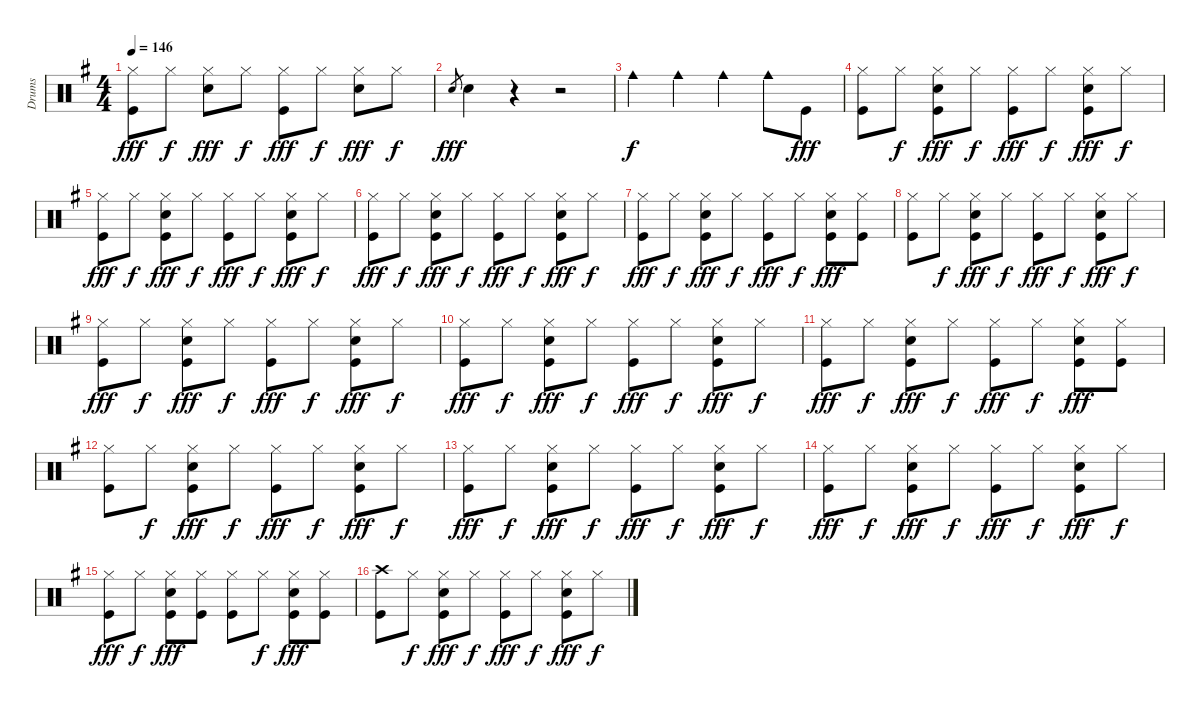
\track ("Drums" "Drums") {instrument percussion}
\staff {score}
\articulation defaults
\ts (4 4)
\tempo 146
\clef neutral
\ks g
("Hi-Hat (closed)" "Kick (hit)").8{dy fff} "Hi-Hat (closed)".8{dy f} ("Hi-Hat (closed)" "Snare (hit) 2").8{dy fff} "Hi-Hat (closed)".8{dy f} ("Hi-Hat (closed)" "Kick (hit)").8{dy fff} "Hi-Hat (closed)".8{dy f} ("Hi-Hat (closed)" "Snare (hit) 2").8{dy fff} "Hi-Hat (closed)".8{dy f} |
"Snare (hit) 2".8{gr dy fff} "Snare (hit) 2".4 r.4 r.2 |
"Cowbell medium (hit)".4{dy f} "Cowbell medium (hit)".4 "Cowbell medium (hit)".4 "Cowbell medium (hit)".8 "Kick (hit)".8{dy fff} |
("Hi-Hat (closed)" "Kick (hit)").8 "Hi-Hat (closed)".8{dy f} ("Hi-Hat (closed)" "Snare (hit) 2" "Kick (hit)").8{dy fff} "Hi-Hat (closed)".8{dy f} ("Hi-Hat (closed)" "Kick (hit)").8{dy fff} "Hi-Hat (closed)".8{dy f} ("Hi-Hat (closed)" "Snare (hit) 2" "Kick (hit)").8{dy fff} "Hi-Hat (closed)".8{dy f} |
("Hi-Hat (closed)" "Kick (hit)").8{dy fff} "Hi-Hat (closed)".8{dy f} ("Hi-Hat (closed)" "Snare (hit) 2" "Kick (hit)").8{dy fff} "Hi-Hat (closed)".8{dy f} ("Hi-Hat (closed)" "Kick (hit)").8{dy fff} "Hi-Hat (closed)".8{dy f} ("Hi-Hat (closed)" "Snare (hit) 2" "Kick (hit)").8{dy fff} "Hi-Hat (closed)".8{dy f} |
("Hi-Hat (closed)" "Kick (hit)").8{dy fff} "Hi-Hat (closed)".8{dy f} ("Hi-Hat (closed)" "Snare (hit) 2" "Kick (hit)").8{dy fff} "Hi-Hat (closed)".8{dy f} ("Hi-Hat (closed)" "Kick (hit)").8{dy fff} "Hi-Hat (closed)".8{dy f} ("Hi-Hat (closed)" "Snare (hit) 2" "Kick (hit)").8{dy fff} "Hi-Hat (closed)".8{dy f} |
("Hi-Hat (closed)" "Kick (hit)").8{dy fff} "Hi-Hat (closed)".8{dy f} ("Hi-Hat (closed)" "Snare (hit) 2" "Kick (hit)").8{dy fff} "Hi-Hat (closed)".8{dy f} ("Hi-Hat (closed)" "Kick (hit)").8{dy fff} "Hi-Hat (closed)".8{dy f} ("Hi-Hat (closed)" "Snare (hit) 2" "Kick (hit)").8{dy fff} ("Hi-Hat (closed)" "Kick (hit)").8 |
("Hi-Hat (closed)" "Kick (hit)").8 "Hi-Hat (closed)".8{dy f} ("Hi-Hat (closed)" "Snare (hit) 2" "Kick (hit)").8{dy fff} "Hi-Hat (closed)".8{dy f} ("Hi-Hat (closed)" "Kick (hit)").8{dy fff} "Hi-Hat (closed)".8{dy f} ("Hi-Hat (closed)" "Snare (hit) 2" "Kick (hit)").8{dy fff} "Hi-Hat (closed)".8{dy f} |
("Hi-Hat (closed)" "Kick (hit)").8{dy fff} "Hi-Hat (closed)".8{dy f} ("Hi-Hat (closed)" "Snare (hit) 2" "Kick (hit)").8{dy fff} "Hi-Hat (closed)".8{dy f} ("Hi-Hat (closed)" "Kick (hit)").8{dy fff} "Hi-Hat (closed)".8{dy f} ("Hi-Hat (closed)" "Snare (hit) 2" "Kick (hit)").8{dy fff} "Hi-Hat (closed)".8{dy f} |
("Hi-Hat (closed)" "Kick (hit)").8{dy fff} "Hi-Hat (closed)".8{dy f} ("Hi-Hat (closed)" "Snare (hit) 2" "Kick (hit)").8{dy fff} "Hi-Hat (closed)".8{dy f} ("Hi-Hat (closed)" "Kick (hit)").8{dy fff} "Hi-Hat (closed)".8{dy f} ("Hi-Hat (closed)" "Snare (hit) 2" "Kick (hit)").8{dy fff} "Hi-Hat (closed)".8{dy f} |
("Hi-Hat (closed)" "Kick (hit)").8{dy fff} "Hi-Hat (closed)".8{dy f} ("Hi-Hat (closed)" "Snare (hit) 2" "Kick (hit)").8{dy fff} "Hi-Hat (closed)".8{dy f} ("Hi-Hat (closed)" "Kick (hit)").8{dy fff} "Hi-Hat (closed)".8{dy f} ("Hi-Hat (closed)" "Snare (hit) 2" "Kick (hit)").8{dy fff} ("Hi-Hat (closed)" "Kick (hit)").8 |
("Hi-Hat (closed)" "Kick (hit)").8 "Hi-Hat (closed)".8{dy f} ("Hi-Hat (closed)" "Snare (hit) 2" "Kick (hit)").8{dy fff} "Hi-Hat (closed)".8{dy f} ("Hi-Hat (closed)" "Kick (hit)").8{dy fff} "Hi-Hat (closed)".8{dy f} ("Hi-Hat (closed)" "Snare (hit) 2" "Kick (hit)").8{dy fff} "Hi-Hat (closed)".8{dy f} |
("Hi-Hat (closed)" "Kick (hit)").8{dy fff} "Hi-Hat (closed)".8{dy f} ("Hi-Hat (closed)" "Snare (hit) 2" "Kick (hit)").8{dy fff} "Hi-Hat (closed)".8{dy f} ("Hi-Hat (closed)" "Kick (hit)").8{dy fff} "Hi-Hat (closed)".8{dy f} ("Hi-Hat (closed)" "Snare (hit) 2" "Kick (hit)").8{dy fff} "Hi-Hat (closed)".8{dy f} |
("Hi-Hat (closed)" "Kick (hit)").8{dy fff} "Hi-Hat (closed)".8{dy f} ("Hi-Hat (closed)" "Snare (hit) 2" "Kick (hit)").8{dy fff} "Hi-Hat (closed)".8{dy f} ("Hi-Hat (closed)" "Kick (hit)").8{dy fff} "Hi-Hat (closed)".8{dy f} ("Hi-Hat (closed)" "Snare (hit) 2" "Kick (hit)").8{dy fff} "Hi-Hat (closed)".8{dy f} |
("Hi-Hat (closed)" "Kick (hit)").8{dy fff} "Hi-Hat (closed)".8{dy f} ("Hi-Hat (closed)" "Snare (hit) 2" "Kick (hit)").8{dy fff} ("Hi-Hat (closed)" "Kick (hit)").8 ("Hi-Hat (closed)" "Kick (hit)").8 "Hi-Hat (closed)".8{dy f} ("Hi-Hat (closed)" "Snare (hit) 2" "Kick (hit)").8{dy fff} ("Hi-Hat (closed)" "Kick (hit)").8 |
("Crash high (hit)" "Kick (hit)").8 "Hi-Hat (closed)".8{dy f} ("Hi-Hat (closed)" "Snare (hit) 2" "Kick (hit)").8{dy fff} "Hi-Hat (closed)".8{dy f} ("Hi-Hat (closed)" "Kick (hit)").8{dy fff} "Hi-Hat (closed)".8{dy f} ("Hi-Hat (closed)" "Snare (hit) 2" "Kick (hit)").8{dy fff} "Hi-Hat (closed)".8{dy f}
